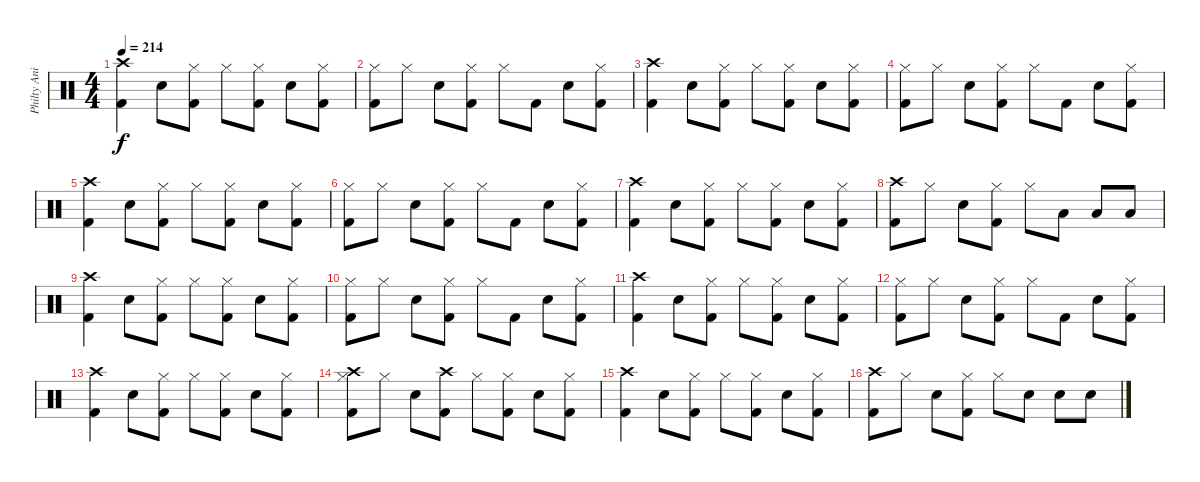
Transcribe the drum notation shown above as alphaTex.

\track ("Philty Animal" "Philty Ani") {instrument percussion}
\staff {score}
\articulation defaults
\ts (4 4)
\tempo 214
\clef neutral
\ks c
("Kick (hit) 2" "Crash high (hit)").4{dy f} "Snare (hit) 2".8 ("Kick (hit) 2" "Hi-Hat (closed)").8 "Hi-Hat (closed)".8 ("Kick (hit) 2" "Hi-Hat (closed)").8 "Snare (hit) 2".8 ("Kick (hit) 2" "Hi-Hat (closed)").8 |
("Kick (hit) 2" "Hi-Hat (closed)").8 "Hi-Hat (closed)".8 "Snare (hit) 2".8 ("Hi-Hat (closed)" "Kick (hit) 2").8 "Hi-Hat (closed)".8 "Kick (hit) 2".8 "Snare (hit) 2".8 ("Kick (hit) 2" "Hi-Hat (closed)").8 |
("Kick (hit) 2" "Crash high (hit)").4 "Snare (hit) 2".8 ("Kick (hit) 2" "Hi-Hat (closed)").8 "Hi-Hat (closed)".8 ("Kick (hit) 2" "Hi-Hat (closed)").8 "Snare (hit) 2".8 ("Kick (hit) 2" "Hi-Hat (closed)").8 |
("Kick (hit) 2" "Hi-Hat (closed)").8 "Hi-Hat (closed)".8 "Snare (hit) 2".8 ("Hi-Hat (closed)" "Kick (hit) 2").8 "Hi-Hat (closed)".8 "Kick (hit) 2".8 "Snare (hit) 2".8 ("Kick (hit) 2" "Hi-Hat (closed)").8 |
("Kick (hit) 2" "Crash high (hit)").4 "Snare (hit) 2".8 ("Kick (hit) 2" "Hi-Hat (closed)").8 "Hi-Hat (closed)".8 ("Kick (hit) 2" "Hi-Hat (closed)").8 "Snare (hit) 2".8 ("Kick (hit) 2" "Hi-Hat (closed)").8 |
("Kick (hit) 2" "Hi-Hat (closed)").8 "Hi-Hat (closed)".8 "Snare (hit) 2".8 ("Hi-Hat (closed)" "Kick (hit) 2").8 "Hi-Hat (closed)".8 "Kick (hit) 2".8 "Snare (hit) 2".8 ("Kick (hit) 2" "Hi-Hat (closed)").8 |
("Kick (hit) 2" "Crash high (hit)").4 "Snare (hit) 2".8 ("Kick (hit) 2" "Hi-Hat (closed)").8 "Hi-Hat (closed)".8 ("Kick (hit) 2" "Hi-Hat (closed)").8 "Snare (hit) 2".8 ("Kick (hit) 2" "Hi-Hat (closed)").8 |
("Crash high (hit)" "Kick (hit) 2").8 "Hi-Hat (closed)".8 "Snare (hit) 2".8 ("Hi-Hat (closed)" "Kick (hit) 2").8 "Hi-Hat (closed)".8 "Low Tom (hit)".8 "Low Tom (hit)".8 "Low Tom (hit)".8 |
("Kick (hit) 2" "Crash high (hit)").4 "Snare (hit) 2".8 ("Kick (hit) 2" "Hi-Hat (closed)").8 "Hi-Hat (closed)".8 ("Kick (hit) 2" "Hi-Hat (closed)").8 "Snare (hit) 2".8 ("Kick (hit) 2" "Hi-Hat (closed)").8 |
("Kick (hit) 2" "Hi-Hat (closed)").8 "Hi-Hat (closed)".8 "Snare (hit) 2".8 ("Hi-Hat (closed)" "Kick (hit) 2").8 "Hi-Hat (closed)".8 "Kick (hit) 2".8 "Snare (hit) 2".8 ("Kick (hit) 2" "Hi-Hat (closed)").8 |
("Kick (hit) 2" "Crash high (hit)").4 "Snare (hit) 2".8 ("Kick (hit) 2" "Hi-Hat (closed)").8 "Hi-Hat (closed)".8 ("Kick (hit) 2" "Hi-Hat (closed)").8 "Snare (hit) 2".8 ("Kick (hit) 2" "Hi-Hat (closed)").8 |
("Kick (hit) 2" "Hi-Hat (closed)").8 "Hi-Hat (closed)".8 "Snare (hit) 2".8 ("Hi-Hat (closed)" "Kick (hit) 2").8 "Hi-Hat (closed)".8 "Kick (hit) 2".8 "Snare (hit) 2".8 ("Kick (hit) 2" "Hi-Hat (closed)").8 |
("Kick (hit) 2" "Crash high (hit)").4 "Snare (hit) 2".8 ("Kick (hit) 2" "Hi-Hat (closed)").8 "Hi-Hat (closed)".8 ("Kick (hit) 2" "Hi-Hat (closed)").8 "Snare (hit) 2".8 ("Kick (hit) 2" "Hi-Hat (closed)").8 |
("Crash high (hit)" "Kick (hit) 2" "Hi-Hat (closed)").8 "Hi-Hat (closed)".8 "Snare (hit) 2".8 ("Crash high (hit)" "Kick (hit) 2").8 "Hi-Hat (closed)".8 ("Kick (hit) 2" "Hi-Hat (closed)").8 "Snare (hit) 2".8 ("Kick (hit) 2" "Hi-Hat (closed)").8 |
("Kick (hit) 2" "Crash high (hit)").4 "Snare (hit) 2".8 ("Kick (hit) 2" "Hi-Hat (closed)").8 "Hi-Hat (closed)".8 ("Kick (hit) 2" "Hi-Hat (closed)").8 "Snare (hit) 2".8 ("Kick (hit) 2" "Hi-Hat (closed)").8 |
("Crash high (hit)" "Kick (hit) 2").8 "Hi-Hat (closed)".8 "Snare (hit) 2".8 ("Hi-Hat (closed)" "Kick (hit) 2").8 "Hi-Hat (closed)".8 "Snare (hit) 2".8 "Snare (hit) 2".8 "Snare (hit) 2".8
